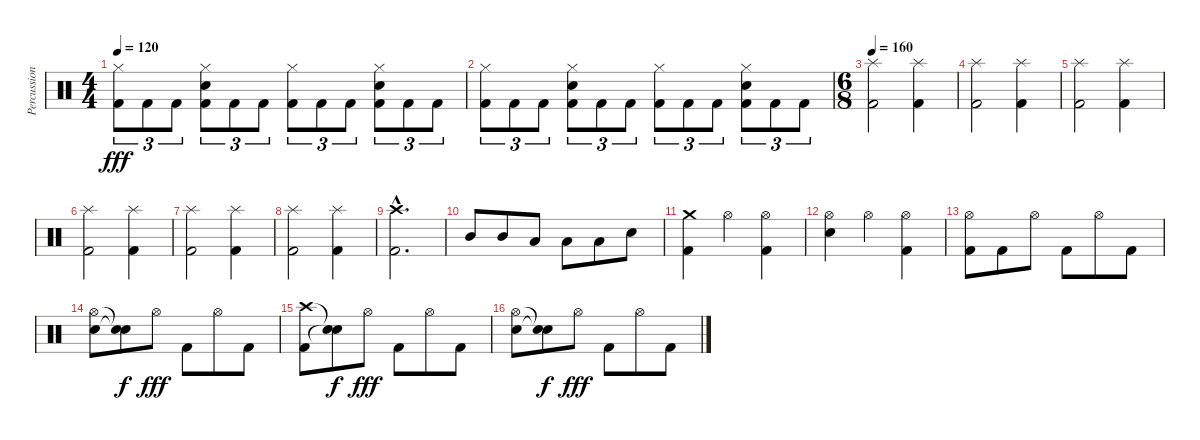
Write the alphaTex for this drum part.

\track ("Percussion" "Percussion") {instrument percussion}
\staff {score}
\articulation defaults
\ts (4 4)
\tempo 120
\clef neutral
\ks c
("Hi-Hat (closed)" "Kick (hit) 2").8{tu (3 2) dy fff} "Kick (hit) 2".8{tu (3 2)} "Kick (hit) 2".8{tu (3 2)} ("Hi-Hat (closed)" "Snare (hit) 2" "Kick (hit) 2").8{tu (3 2)} "Kick (hit) 2".8{tu (3 2)} "Kick (hit) 2".8{tu (3 2)} ("Hi-Hat (closed)" "Kick (hit) 2").8{tu (3 2)} "Kick (hit) 2".8{tu (3 2)} "Kick (hit) 2".8{tu (3 2)} ("Hi-Hat (closed)" "Snare (hit) 2" "Kick (hit) 2").8{tu (3 2)} "Kick (hit) 2".8{tu (3 2)} "Kick (hit) 2".8{tu (3 2)} |
("Hi-Hat (closed)" "Kick (hit) 2").8{tu (3 2)} "Kick (hit) 2".8{tu (3 2)} "Kick (hit) 2".8{tu (3 2)} ("Hi-Hat (closed)" "Snare (hit) 2" "Kick (hit) 2").8{tu (3 2)} "Kick (hit) 2".8{tu (3 2)} "Kick (hit) 2".8{tu (3 2)} ("Hi-Hat (closed)" "Kick (hit) 2").8{tu (3 2)} "Kick (hit) 2".8{tu (3 2)} "Kick (hit) 2".8{tu (3 2)} ("Hi-Hat (closed)" "Snare (hit) 2" "Kick (hit) 2").8{tu (3 2)} "Kick (hit) 2".8{tu (3 2)} "Kick (hit) 2".8{tu (3 2)} |
\ts (6 8)
\tempo 160
("Splash (hit)" "Kick (hit) 2").2 ("Splash (hit)" "Kick (hit) 2").4 |
("Splash (hit)" "Kick (hit) 2").2 ("Splash (hit)" "Kick (hit) 2").4 |
("Splash (hit)" "Kick (hit) 2").2 ("Splash (hit)" "Kick (hit) 2").4 |
("Splash (hit)" "Kick (hit) 2").2 ("Splash (hit)" "Kick (hit) 2").4 |
("Splash (hit)" "Kick (hit) 2").2 ("Splash (hit)" "Kick (hit) 2").4 |
("Splash (hit)" "Kick (hit) 2").2 ("Splash (hit)" "Kick (hit) 2").4 |
("Crash high (hit)"{hac} "Kick (hit) 2"{hac}).2{d} |
"Mid Tom (hit)".8 "Mid Tom (hit)".8 "Low Tom (hit)".8 "Low Tom (hit)".8 "Low Floor Tom (hit)".8 "Snare (hit) 2".8 |
("Crash medium (hit)" "Kick (hit) 2").4 "Hi-Hat (open)".4 ("Hi-Hat (open)" "Kick (hit) 2").4 |
("Hi-Hat (open)" "Snare (hit) 2").4 "Hi-Hat (open)".4 ("Hi-Hat (open)" "Kick (hit) 2").4 |
("Hi-Hat (open)" "Kick (hit) 2").8 "Kick (hit) 2".8 "Hi-Hat (open)".8 "Kick (hit) 2".8 "Hi-Hat (open)".8 "Kick (hit) 2".8 |
("Hi-Hat (open)" "Snare (hit) 2").8 ("Snare (hit)"{t} "Snare (hit)"{t}).8{dy f} "Hi-Hat (open)".8{dy fff} "Kick (hit) 2".8 "Hi-Hat (open)".8 "Kick (hit) 2".8 |
("Crash high (hit)" "Kick (hit) 2").8 ("Snare (hit)"{t} "Snare (hit)"{t}).8{dy f} "Hi-Hat (open)".8{dy fff} "Kick (hit) 2".8 "Hi-Hat (open)".8 "Kick (hit) 2".8 |
("Hi-Hat (open)" "Snare (hit) 2").8 ("Snare (hit)"{t} "Snare (hit)"{t}).8{dy f} "Hi-Hat (open)".8{dy fff} "Kick (hit) 2".8 "Hi-Hat (open)".8 "Kick (hit) 2".8
